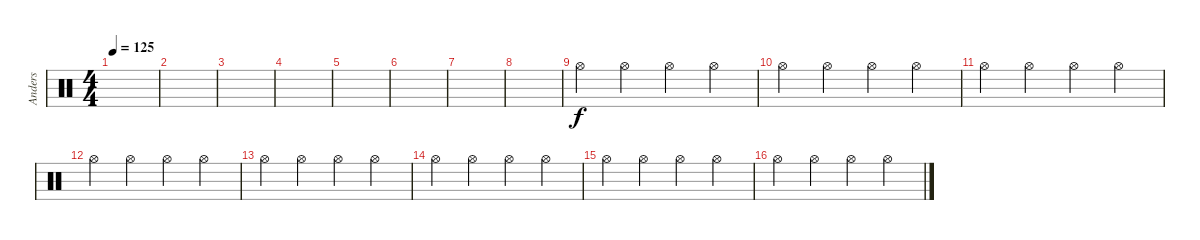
\track ("Anders" "Anders") {instrument percussion}
\staff {score}
\articulation defaults
\ts (4 4)
\tempo 125
\clef neutral
\ks c
|
|
|
|
|
|
|
|
"Hi-Hat (open)".4 "Hi-Hat (open)".4 "Hi-Hat (open)".4 "Hi-Hat (open)".4 |
"Hi-Hat (open)".4 "Hi-Hat (open)".4 "Hi-Hat (open)".4 "Hi-Hat (open)".4 |
"Hi-Hat (open)".4 "Hi-Hat (open)".4 "Hi-Hat (open)".4 "Hi-Hat (open)".4 |
"Hi-Hat (open)".4 "Hi-Hat (open)".4 "Hi-Hat (open)".4 "Hi-Hat (open)".4 |
"Hi-Hat (open)".4 "Hi-Hat (open)".4 "Hi-Hat (open)".4 "Hi-Hat (open)".4 |
"Hi-Hat (open)".4 "Hi-Hat (open)".4 "Hi-Hat (open)".4 "Hi-Hat (open)".4 |
"Hi-Hat (open)".4 "Hi-Hat (open)".4 "Hi-Hat (open)".4 "Hi-Hat (open)".4 |
"Hi-Hat (open)".4 "Hi-Hat (open)".4 "Hi-Hat (open)".4 "Hi-Hat (open)".4
